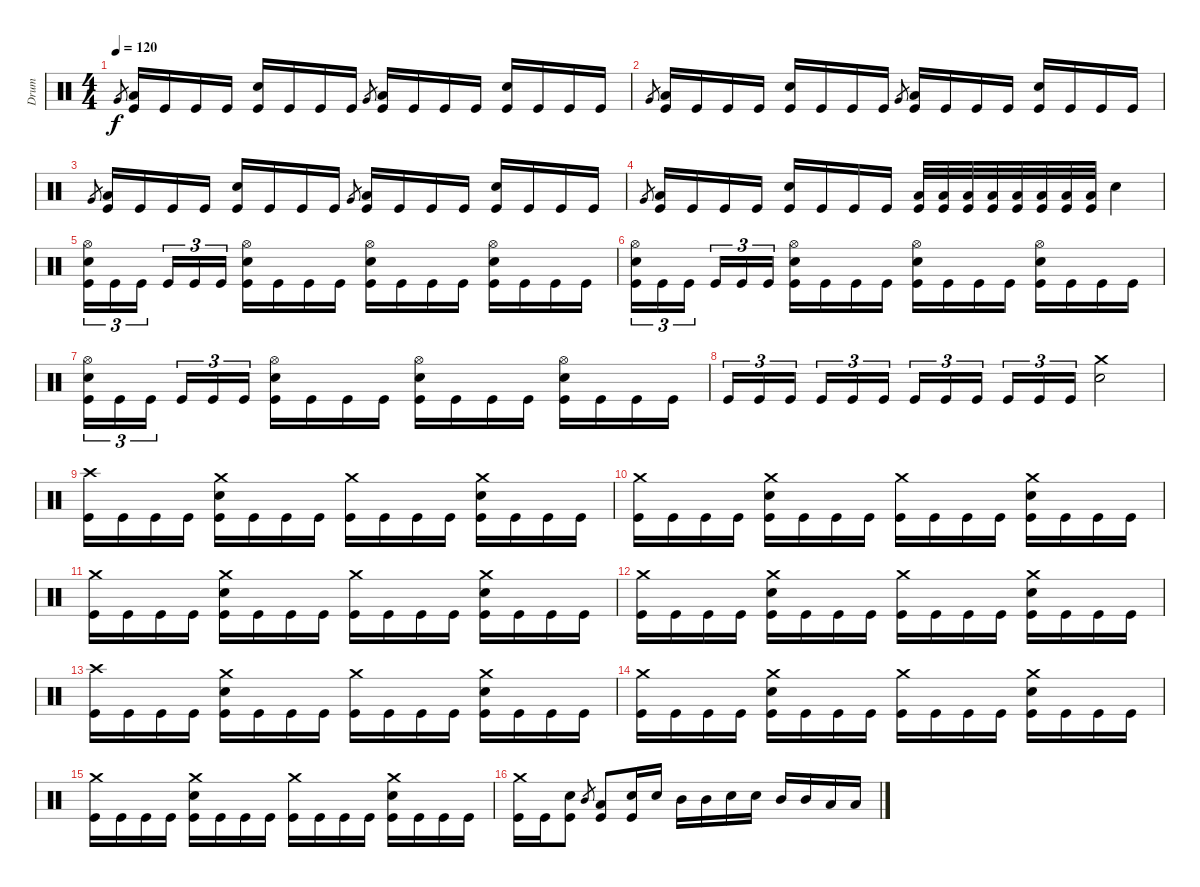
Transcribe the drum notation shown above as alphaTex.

\track ("Drum" "Drum") {instrument percussion}
\staff {score}
\articulation defaults
\ts (4 4)
\tempo 120
\clef neutral
\ks c "Very Low Tom (hit)".8{gr dy f}
("Kick (hit)" "Low Tom (hit)").16 "Kick (hit)".16 "Kick (hit)".16 "Kick (hit)".16 ("Kick (hit)" "Electric Snare (hit)").16 "Kick (hit)".16 "Kick (hit)".16 "Kick (hit)".16 "Very Low Tom (hit)".8{gr} ("Kick (hit)" "Low Tom (hit)").16 "Kick (hit)".16 "Kick (hit)".16 "Kick (hit)".16 ("Kick (hit)" "Electric Snare (hit)").16 "Kick (hit)".16 "Kick (hit)".16 "Kick (hit)".16 |
"Very Low Tom (hit)".8{gr} ("Kick (hit)" "Low Tom (hit)").16 "Kick (hit)".16 "Kick (hit)".16 "Kick (hit)".16 ("Kick (hit)" "Electric Snare (hit)").16 "Kick (hit)".16 "Kick (hit)".16 "Kick (hit)".16 "Very Low Tom (hit)".8{gr} ("Kick (hit)" "Low Tom (hit)").16 "Kick (hit)".16 "Kick (hit)".16 "Kick (hit)".16 ("Kick (hit)" "Electric Snare (hit)").16 "Kick (hit)".16 "Kick (hit)".16 "Kick (hit)".16 |
"Very Low Tom (hit)".8{gr} ("Kick (hit)" "Low Tom (hit)").16 "Kick (hit)".16 "Kick (hit)".16 "Kick (hit)".16 ("Kick (hit)" "Electric Snare (hit)").16 "Kick (hit)".16 "Kick (hit)".16 "Kick (hit)".16 "Very Low Tom (hit)".8{gr} ("Kick (hit)" "Low Tom (hit)").16 "Kick (hit)".16 "Kick (hit)".16 "Kick (hit)".16 ("Kick (hit)" "Electric Snare (hit)").16 "Kick (hit)".16 "Kick (hit)".16 "Kick (hit)".16 |
"Very Low Tom (hit)".8{gr} ("Kick (hit)" "Low Tom (hit)").16 "Kick (hit)".16 "Kick (hit)".16 "Kick (hit)".16 ("Kick (hit)" "Electric Snare (hit)").16 "Kick (hit)".16 "Kick (hit)".16 "Kick (hit)".16 ("Kick (hit)" "Low Tom (hit)").32 ("Kick (hit)" "Low Tom (hit)").32 ("Kick (hit)" "Low Tom (hit)").32 ("Kick (hit)" "Low Tom (hit)").32 ("Kick (hit)" "Low Tom (hit)").32 ("Kick (hit)" "Low Tom (hit)").32 ("Kick (hit)" "Low Tom (hit)").32 ("Kick (hit)" "Low Tom (hit)").32 "Electric Snare (hit)".4 |
("Kick (hit)" "Electric Snare (hit)" "Hi-Hat (open)").16{tu (3 2)} "Kick (hit)".16{tu (3 2)} "Kick (hit)".16{tu (3 2)} "Kick (hit)".16{tu (3 2)} "Kick (hit)".16{tu (3 2)} "Kick (hit)".16{tu (3 2)} ("Kick (hit)" "Electric Snare (hit)" "Hi-Hat (open)").16 "Kick (hit)".16 "Kick (hit)".16 "Kick (hit)".16 ("Kick (hit)" "Electric Snare (hit)" "Hi-Hat (open)").16 "Kick (hit)".16 "Kick (hit)".16 "Kick (hit)".16 ("Kick (hit)" "Electric Snare (hit)" "Hi-Hat (open)").16 "Kick (hit)".16 "Kick (hit)".16 "Kick (hit)".16 |
("Kick (hit)" "Electric Snare (hit)" "Hi-Hat (open)").16{tu (3 2)} "Kick (hit)".16{tu (3 2)} "Kick (hit)".16{tu (3 2)} "Kick (hit)".16{tu (3 2)} "Kick (hit)".16{tu (3 2)} "Kick (hit)".16{tu (3 2)} ("Kick (hit)" "Electric Snare (hit)" "Hi-Hat (open)").16 "Kick (hit)".16 "Kick (hit)".16 "Kick (hit)".16 ("Kick (hit)" "Electric Snare (hit)" "Hi-Hat (open)").16 "Kick (hit)".16 "Kick (hit)".16 "Kick (hit)".16 ("Kick (hit)" "Electric Snare (hit)" "Hi-Hat (open)").16 "Kick (hit)".16 "Kick (hit)".16 "Kick (hit)".16 |
("Kick (hit)" "Electric Snare (hit)" "Hi-Hat (open)").16{tu (3 2)} "Kick (hit)".16{tu (3 2)} "Kick (hit)".16{tu (3 2)} "Kick (hit)".16{tu (3 2)} "Kick (hit)".16{tu (3 2)} "Kick (hit)".16{tu (3 2)} ("Kick (hit)" "Electric Snare (hit)" "Hi-Hat (open)").16 "Kick (hit)".16 "Kick (hit)".16 "Kick (hit)".16 ("Kick (hit)" "Electric Snare (hit)" "Hi-Hat (open)").16 "Kick (hit)".16 "Kick (hit)".16 "Kick (hit)".16 ("Kick (hit)" "Electric Snare (hit)" "Hi-Hat (open)").16 "Kick (hit)".16 "Kick (hit)".16 "Kick (hit)".16 |
"Kick (hit)".16{tu (3 2)} "Kick (hit)".16{tu (3 2)} "Kick (hit)".16{tu (3 2)} "Kick (hit)".16{tu (3 2)} "Kick (hit)".16{tu (3 2)} "Kick (hit)".16{tu (3 2)} "Kick (hit)".16{tu (3 2)} "Kick (hit)".16{tu (3 2)} "Kick (hit)".16{tu (3 2)} "Kick (hit)".16{tu (3 2)} "Kick (hit)".16{tu (3 2)} "Kick (hit)".16{tu (3 2)} ("Electric Snare (hit)" "Crash medium (hit)").2 |
("Kick (hit)" "Crash high (hit)").16 "Kick (hit)".16 "Kick (hit)".16 "Kick (hit)".16 ("Kick (hit)" "Electric Snare (hit)" "Crash medium (hit)").16 "Kick (hit)".16 "Kick (hit)".16 "Kick (hit)".16 ("Kick (hit)" "Crash medium (hit)").16 "Kick (hit)".16 "Kick (hit)".16 "Kick (hit)".16 ("Kick (hit)" "Electric Snare (hit)" "Crash medium (hit)").16 "Kick (hit)".16 "Kick (hit)".16 "Kick (hit)".16 |
("Kick (hit)" "Crash medium (hit)").16 "Kick (hit)".16 "Kick (hit)".16 "Kick (hit)".16 ("Kick (hit)" "Electric Snare (hit)" "Crash medium (hit)").16 "Kick (hit)".16 "Kick (hit)".16 "Kick (hit)".16 ("Kick (hit)" "Crash medium (hit)").16 "Kick (hit)".16 "Kick (hit)".16 "Kick (hit)".16 ("Kick (hit)" "Electric Snare (hit)" "Crash medium (hit)").16 "Kick (hit)".16 "Kick (hit)".16 "Kick (hit)".16 |
("Kick (hit)" "Crash medium (hit)").16 "Kick (hit)".16 "Kick (hit)".16 "Kick (hit)".16 ("Kick (hit)" "Electric Snare (hit)" "Crash medium (hit)").16 "Kick (hit)".16 "Kick (hit)".16 "Kick (hit)".16 ("Kick (hit)" "Crash medium (hit)").16 "Kick (hit)".16 "Kick (hit)".16 "Kick (hit)".16 ("Kick (hit)" "Electric Snare (hit)" "Crash medium (hit)").16 "Kick (hit)".16 "Kick (hit)".16 "Kick (hit)".16 |
("Kick (hit)" "Crash medium (hit)").16 "Kick (hit)".16 "Kick (hit)".16 "Kick (hit)".16 ("Kick (hit)" "Electric Snare (hit)" "Crash medium (hit)").16 "Kick (hit)".16 "Kick (hit)".16 "Kick (hit)".16 ("Kick (hit)" "Crash medium (hit)").16 "Kick (hit)".16 "Kick (hit)".16 "Kick (hit)".16 ("Kick (hit)" "Electric Snare (hit)" "Crash medium (hit)").16 "Kick (hit)".16 "Kick (hit)".16 "Kick (hit)".16 |
("Kick (hit)" "Crash high (hit)").16 "Kick (hit)".16 "Kick (hit)".16 "Kick (hit)".16 ("Kick (hit)" "Electric Snare (hit)" "Crash medium (hit)").16 "Kick (hit)".16 "Kick (hit)".16 "Kick (hit)".16 ("Kick (hit)" "Crash medium (hit)").16 "Kick (hit)".16 "Kick (hit)".16 "Kick (hit)".16 ("Kick (hit)" "Electric Snare (hit)" "Crash medium (hit)").16 "Kick (hit)".16 "Kick (hit)".16 "Kick (hit)".16 |
("Kick (hit)" "Crash medium (hit)").16 "Kick (hit)".16 "Kick (hit)".16 "Kick (hit)".16 ("Kick (hit)" "Electric Snare (hit)" "Crash medium (hit)").16 "Kick (hit)".16 "Kick (hit)".16 "Kick (hit)".16 ("Kick (hit)" "Crash medium (hit)").16 "Kick (hit)".16 "Kick (hit)".16 "Kick (hit)".16 ("Kick (hit)" "Electric Snare (hit)" "Crash medium (hit)").16 "Kick (hit)".16 "Kick (hit)".16 "Kick (hit)".16 |
("Kick (hit)" "Crash medium (hit)").16 "Kick (hit)".16 "Kick (hit)".16 "Kick (hit)".16 ("Kick (hit)" "Electric Snare (hit)" "Crash medium (hit)").16 "Kick (hit)".16 "Kick (hit)".16 "Kick (hit)".16 ("Kick (hit)" "Crash medium (hit)").16 "Kick (hit)".16 "Kick (hit)".16 "Kick (hit)".16 ("Kick (hit)" "Electric Snare (hit)" "Crash medium (hit)").16 "Kick (hit)".16 "Kick (hit)".16 "Kick (hit)".16 |
("Kick (hit)" "Crash medium (hit)").16 "Kick (hit)".16 ("Kick (hit)" "Electric Snare (hit)").8 "Mid Tom (hit)".8{gr} ("Kick (hit)" "Low Tom (hit)").8 ("Kick (hit)" "Electric Snare (hit)").16 "Electric Snare (hit)".16 "Mid Tom (hit)".16 "Mid Tom (hit)".16 "Electric Snare (hit)".16 "Electric Snare (hit)".16 "Mid Tom (hit)".16 "Mid Tom (hit)".16 "Low Tom (hit)".16 "Low Tom (hit)".16
